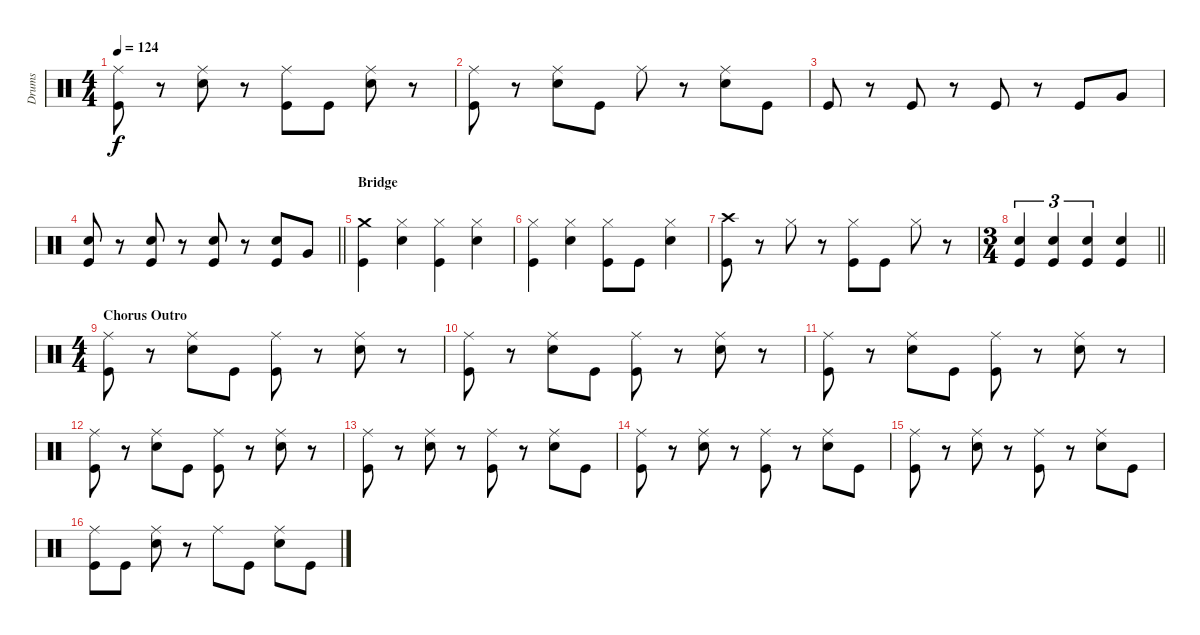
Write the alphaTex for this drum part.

\track ("Drums" "Drums") {instrument percussion}
\staff {score}
\articulation defaults
\ts (4 4)
\tempo 124
\clef neutral
\ks c
("Ride (middle)" "Kick (hit)").8{dy f} r.8 ("Ride (middle)" "Snare (hit) 2").8 r.8 ("Ride (middle)" "Kick (hit)").8 "Kick (hit)".8 ("Ride (middle)" "Snare (hit) 2").8 r.8 |
("Ride (middle)" "Kick (hit)").8 r.8 ("Ride (middle)" "Snare (hit) 2").8 "Kick (hit)".8 "Ride (middle)".8 r.8 ("Ride (middle)" "Snare (hit) 2").8 "Kick (hit)".8 |
"Kick (hit)".8 r.8 "Kick (hit)".8 r.8 "Kick (hit)".8 r.8 "Kick (hit)".8 "Very Low Tom (hit)".8 |
\barLineRight lightlight
("Snare (hit) 2" "Kick (hit)").8 r.8 ("Snare (hit) 2" "Kick (hit)").8 r.8 ("Snare (hit) 2" "Kick (hit)").8 r.8 ("Snare (hit) 2" "Kick (hit)").8 "Very Low Tom (hit)".8 |
\section ("" "Bridge")
("Crash medium (hit)" "Kick (hit)").4 ("Hi-Hat (closed)" "Snare (hit) 2").4 ("Hi-Hat (closed)" "Kick (hit)").4 ("Hi-Hat (closed)" "Snare (hit) 2").4 |
("Hi-Hat (closed)" "Kick (hit)").4 ("Hi-Hat (closed)" "Snare (hit) 2").4 ("Hi-Hat (closed)" "Kick (hit)").8 "Kick (hit)".8 ("Hi-Hat (closed)" "Snare (hit) 2").4 |
("Crash high (hit)" "Kick (hit)").8 r.8 "Hi-Hat (closed)".8 r.8 ("Hi-Hat (closed)" "Kick (hit)").8 "Kick (hit)".8 "Hi-Hat (closed)".8 r.8 |
\ts (3 4)
\barLineRight lightlight
("Snare (hit) 2" "Kick (hit)").4{tu (3 2)} ("Snare (hit) 2" "Kick (hit)").4{tu (3 2)} ("Snare (hit) 2" "Kick (hit)").4{tu (3 2)} ("Snare (hit) 2" "Kick (hit)").4 |
\ts (4 4)
\section ("" "Chorus Outro")
("Ride (middle)" "Kick (hit)").8 r.8 ("Ride (middle)" "Snare (hit) 2").8 "Kick (hit)".8 ("Ride (middle)" "Kick (hit)").8 r.8 ("Ride (middle)" "Snare (hit) 2").8 r.8 |
("Ride (middle)" "Kick (hit)").8 r.8 ("Ride (middle)" "Snare (hit) 2").8 "Kick (hit)".8 ("Ride (middle)" "Kick (hit)").8 r.8 ("Ride (middle)" "Snare (hit) 2").8 r.8 |
("Ride (middle)" "Kick (hit)").8 r.8 ("Ride (middle)" "Snare (hit) 2").8 "Kick (hit)".8 ("Ride (middle)" "Kick (hit)").8 r.8 ("Ride (middle)" "Snare (hit) 2").8 r.8 |
("Ride (middle)" "Kick (hit)").8 r.8 ("Ride (middle)" "Snare (hit) 2").8 "Kick (hit)".8 ("Ride (middle)" "Kick (hit)").8 r.8 ("Ride (middle)" "Snare (hit) 2").8 r.8 |
("Ride (middle)" "Kick (hit)").8 r.8 ("Ride (middle)" "Snare (hit) 2").8 r.8 ("Ride (middle)" "Kick (hit)").8 r.8 ("Ride (middle)" "Snare (hit) 2").8 "Kick (hit)".8 |
("Ride (middle)" "Kick (hit)").8 r.8 ("Ride (middle)" "Snare (hit) 2").8 r.8 ("Ride (middle)" "Kick (hit)").8 r.8 ("Ride (middle)" "Snare (hit) 2").8 "Kick (hit)".8 |
("Ride (middle)" "Kick (hit)").8 r.8 ("Ride (middle)" "Snare (hit) 2").8 r.8 ("Ride (middle)" "Kick (hit)").8 r.8 ("Ride (middle)" "Snare (hit) 2").8 "Kick (hit)".8 |
("Ride (middle)" "Kick (hit)").8 "Kick (hit)".8 ("Ride (middle)" "Snare (hit) 2").8 r.8 "Ride (middle)".8 "Kick (hit)".8 ("Ride (middle)" "Snare (hit) 2").8 "Kick (hit)".8
